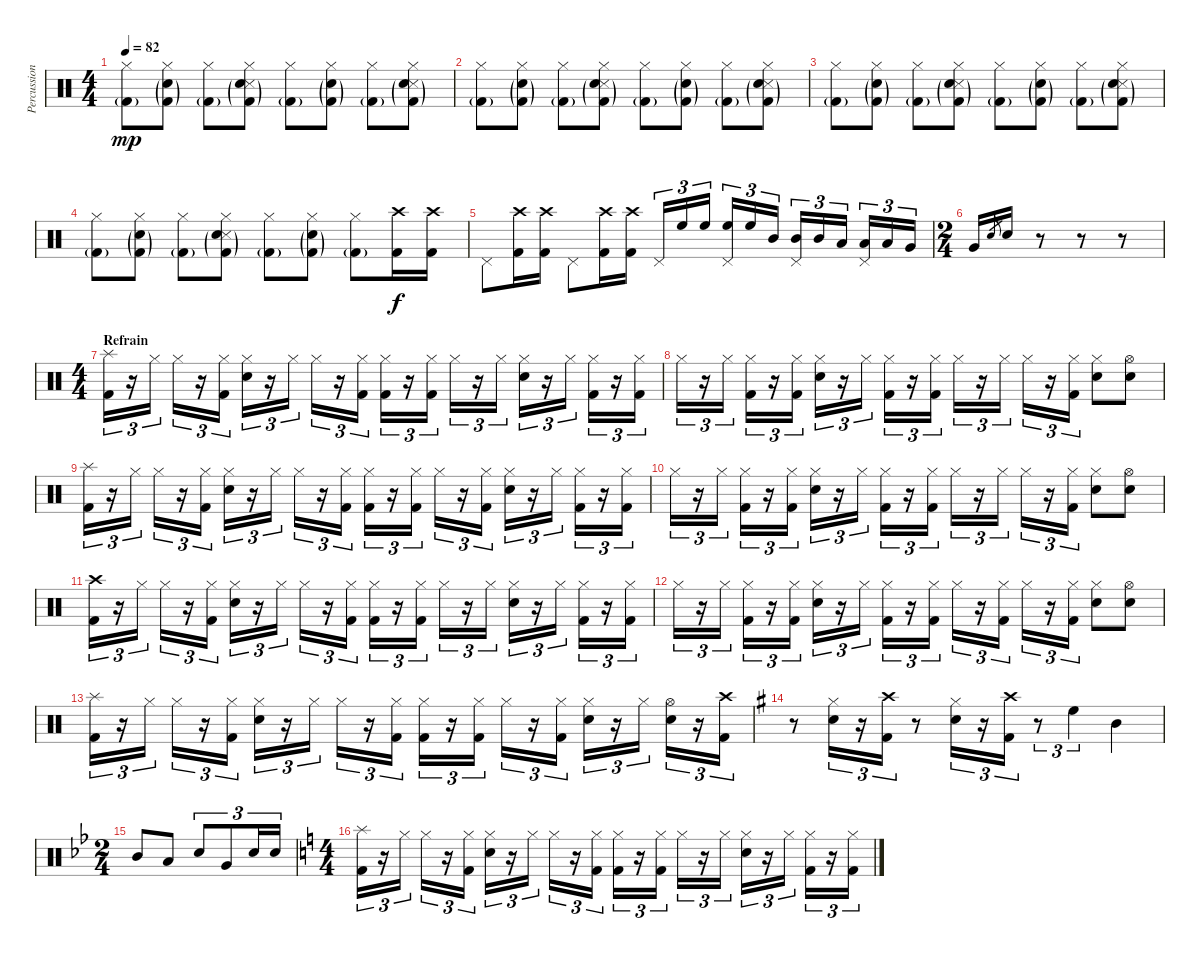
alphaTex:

\track ("Percussioni" "Percussion") {instrument percussion}
\staff {score}
\articulation defaults
\ts (4 4)
\tempo 82
\clef neutral
\ks c
("Hi-Hat (closed)" "Kick (hit) 2"{g}).8{dy mp} ("Hi-Hat (closed)" "Snare (hit) 2"{g} "Kick (hit) 2"{g}).8 ("Hi-Hat (closed)" "Kick (hit) 2"{g}).8 ("Snare (side stick) 3" "Hi-Hat (closed)" "Snare (hit) 2"{g} "Kick (hit) 2"{g}).8 ("Hi-Hat (closed)" "Kick (hit) 2"{g}).8 ("Hi-Hat (closed)" "Snare (hit) 2"{g} "Kick (hit) 2"{g}).8 ("Hi-Hat (closed)" "Kick (hit) 2"{g}).8 ("Snare (side stick) 3" "Hi-Hat (closed)" "Snare (hit) 2"{g} "Kick (hit) 2"{g}).8 |
("Hi-Hat (closed)" "Kick (hit) 2"{g}).8 ("Hi-Hat (closed)" "Snare (hit) 2"{g} "Kick (hit) 2"{g}).8 ("Hi-Hat (closed)" "Kick (hit) 2"{g}).8 ("Snare (side stick) 3" "Hi-Hat (closed)" "Snare (hit) 2"{g} "Kick (hit) 2"{g}).8 ("Hi-Hat (closed)" "Kick (hit) 2"{g}).8 ("Hi-Hat (closed)" "Snare (hit) 2"{g} "Kick (hit) 2"{g}).8 ("Hi-Hat (closed)" "Kick (hit) 2"{g}).8 ("Snare (side stick) 3" "Hi-Hat (closed)" "Snare (hit) 2"{g} "Kick (hit) 2"{g}).8 |
("Hi-Hat (closed)" "Kick (hit) 2"{g}).8 ("Hi-Hat (closed)" "Snare (hit) 2"{g} "Kick (hit) 2"{g}).8 ("Hi-Hat (closed)" "Kick (hit) 2"{g}).8 ("Snare (side stick) 3" "Hi-Hat (closed)" "Snare (hit) 2"{g} "Kick (hit) 2"{g}).8 ("Hi-Hat (closed)" "Kick (hit) 2"{g}).8 ("Hi-Hat (closed)" "Snare (hit) 2"{g} "Kick (hit) 2"{g}).8 ("Hi-Hat (closed)" "Kick (hit) 2"{g}).8 ("Snare (side stick) 3" "Hi-Hat (closed)" "Snare (hit) 2"{g} "Kick (hit) 2"{g}).8 |
("Hi-Hat (closed)" "Kick (hit) 2"{g}).8 ("Hi-Hat (closed)" "Snare (hit) 2"{g} "Kick (hit) 2"{g}).8 ("Hi-Hat (closed)" "Kick (hit) 2"{g}).8 ("Snare (side stick) 3" "Hi-Hat (closed)" "Snare (hit) 2"{g} "Kick (hit) 2"{g}).8 ("Hi-Hat (closed)" "Kick (hit) 2"{g}).8 ("Hi-Hat (closed)" "Snare (hit) 2"{g} "Kick (hit) 2"{g}).8 ("Hi-Hat (closed)" "Kick (hit) 2"{g}).8 ("Crash high (hit)" "Kick (hit) 2").16{dy f} ("Crash high (hit)" "Kick (hit) 2").16 |
"Pedal Hi-Hat (hit)".8 ("Crash high (hit)" "Kick (hit) 2").16 ("Crash high (hit)" "Kick (hit) 2").16 "Pedal Hi-Hat (hit)".8 ("Crash high (hit)" "Kick (hit) 2").16 ("Crash high (hit)" "Kick (hit) 2").16 "Pedal Hi-Hat (hit)".16{tu (3 2)} "High Floor Tom (hit)".16{tu (3 2)} "High Floor Tom (hit)".16{tu (3 2)} ("Pedal Hi-Hat (hit)" "High Floor Tom (hit)").16{tu (3 2)} "High Floor Tom (hit)".16{tu (3 2)} "Mid Tom (hit)".16{tu (3 2)} ("Pedal Hi-Hat (hit)" "Mid Tom (hit)").16{tu (3 2)} "Mid Tom (hit)".16{tu (3 2)} "Low Tom (hit)".16{tu (3 2)} ("Pedal Hi-Hat (hit)" "Low Tom (hit)").16{tu (3 2)} "Low Tom (hit)".16{tu (3 2)} "Very Low Tom (hit)".16{tu (3 2)} |
\ts (2 4)
"Very Low Tom (hit)".16 "Snare (hit) 2".8{gr} "Snare (hit) 2".16 r.8 r.8 r.8 |
\ts (4 4)
\section ("" "Refrain")
("Splash (hit)" "Kick (hit) 2").16{tu (3 2)} r.16{tu (3 2)} "Hi-Hat (closed)".16{tu (3 2)} "Hi-Hat (closed)".16{tu (3 2)} r.16{tu (3 2)} ("Hi-Hat (closed)" "Kick (hit) 2").16{tu (3 2)} ("Hi-Hat (closed)" "Snare (hit) 2").16{tu (3 2)} r.16{tu (3 2)} "Hi-Hat (closed)".16{tu (3 2)} "Hi-Hat (closed)".16{tu (3 2)} r.16{tu (3 2)} ("Hi-Hat (closed)" "Kick (hit) 2").16{tu (3 2)} ("Hi-Hat (closed)" "Kick (hit) 2").16{tu (3 2)} r.16{tu (3 2)} ("Hi-Hat (closed)" "Kick (hit) 2").16{tu (3 2)} "Hi-Hat (closed)".16{tu (3 2)} r.16{tu (3 2)} "Hi-Hat (closed)".16{tu (3 2)} ("Hi-Hat (closed)" "Snare (hit) 2").16{tu (3 2)} r.16{tu (3 2)} "Hi-Hat (closed)".16{tu (3 2)} ("Hi-Hat (closed)" "Kick (hit) 2").16{tu (3 2)} r.16{tu (3 2)} ("Hi-Hat (closed)" "Kick (hit) 2").16{tu (3 2)} |
"Hi-Hat (closed)".16{tu (3 2)} r.16{tu (3 2)} "Hi-Hat (closed)".16{tu (3 2)} ("Hi-Hat (closed)" "Kick (hit) 2").16{tu (3 2)} r.16{tu (3 2)} ("Hi-Hat (closed)" "Kick (hit) 2").16{tu (3 2)} ("Hi-Hat (closed)" "Snare (hit) 2").16{tu (3 2)} r.16{tu (3 2)} "Hi-Hat (closed)".16{tu (3 2)} ("Hi-Hat (closed)" "Kick (hit) 2").16{tu (3 2)} r.16{tu (3 2)} ("Hi-Hat (closed)" "Kick (hit) 2").16{tu (3 2)} "Hi-Hat (closed)".16{tu (3 2)} r.16{tu (3 2)} "Hi-Hat (closed)".16{tu (3 2)} "Hi-Hat (closed)".16{tu (3 2)} r.16{tu (3 2)} ("Hi-Hat (closed)" "Kick (hit) 2").16{tu (3 2)} ("Hi-Hat (closed)" "Snare (hit) 2").8 ("Hi-Hat (open)" "Snare (hit) 2").8 |
("Splash (hit)" "Kick (hit) 2").16{tu (3 2)} r.16{tu (3 2)} "Hi-Hat (closed)".16{tu (3 2)} "Hi-Hat (closed)".16{tu (3 2)} r.16{tu (3 2)} ("Hi-Hat (closed)" "Kick (hit) 2").16{tu (3 2)} ("Hi-Hat (closed)" "Snare (hit) 2").16{tu (3 2)} r.16{tu (3 2)} "Hi-Hat (closed)".16{tu (3 2)} "Hi-Hat (closed)".16{tu (3 2)} r.16{tu (3 2)} ("Hi-Hat (closed)" "Kick (hit) 2").16{tu (3 2)} ("Hi-Hat (closed)" "Kick (hit) 2").16{tu (3 2)} r.16{tu (3 2)} ("Hi-Hat (closed)" "Kick (hit) 2").16{tu (3 2)} "Hi-Hat (closed)".16{tu (3 2)} r.16{tu (3 2)} ("Hi-Hat (closed)" "Kick (hit) 2").16{tu (3 2)} ("Hi-Hat (closed)" "Snare (hit) 2").16{tu (3 2)} r.16{tu (3 2)} "Hi-Hat (closed)".16{tu (3 2)} ("Hi-Hat (closed)" "Kick (hit) 2").16{tu (3 2)} r.16{tu (3 2)} ("Hi-Hat (closed)" "Kick (hit) 2").16{tu (3 2)} |
"Hi-Hat (closed)".16{tu (3 2)} r.16{tu (3 2)} "Hi-Hat (closed)".16{tu (3 2)} ("Hi-Hat (closed)" "Kick (hit) 2").16{tu (3 2)} r.16{tu (3 2)} ("Hi-Hat (closed)" "Kick (hit) 2").16{tu (3 2)} ("Hi-Hat (closed)" "Snare (hit) 2").16{tu (3 2)} r.16{tu (3 2)} "Hi-Hat (closed)".16{tu (3 2)} ("Hi-Hat (closed)" "Kick (hit) 2").16{tu (3 2)} r.16{tu (3 2)} ("Hi-Hat (closed)" "Kick (hit) 2").16{tu (3 2)} "Hi-Hat (closed)".16{tu (3 2)} r.16{tu (3 2)} "Hi-Hat (closed)".16{tu (3 2)} "Hi-Hat (closed)".16{tu (3 2)} r.16{tu (3 2)} ("Hi-Hat (closed)" "Kick (hit) 2").16{tu (3 2)} ("Hi-Hat (closed)" "Snare (hit) 2").8 ("Hi-Hat (open)" "Snare (hit) 2").8 |
("Crash high (hit)" "Kick (hit) 2").16{tu (3 2)} r.16{tu (3 2)} "Hi-Hat (closed)".16{tu (3 2)} "Hi-Hat (closed)".16{tu (3 2)} r.16{tu (3 2)} ("Hi-Hat (closed)" "Kick (hit) 2").16{tu (3 2)} ("Hi-Hat (closed)" "Snare (hit) 2").16{tu (3 2)} r.16{tu (3 2)} "Hi-Hat (closed)".16{tu (3 2)} "Hi-Hat (closed)".16{tu (3 2)} r.16{tu (3 2)} ("Hi-Hat (closed)" "Kick (hit) 2").16{tu (3 2)} ("Hi-Hat (closed)" "Kick (hit) 2").16{tu (3 2)} r.16{tu (3 2)} ("Hi-Hat (closed)" "Kick (hit) 2").16{tu (3 2)} "Hi-Hat (closed)".16{tu (3 2)} r.16{tu (3 2)} "Hi-Hat (closed)".16{tu (3 2)} ("Hi-Hat (closed)" "Snare (hit) 2").16{tu (3 2)} r.16{tu (3 2)} "Hi-Hat (closed)".16{tu (3 2)} ("Hi-Hat (closed)" "Kick (hit) 2").16{tu (3 2)} r.16{tu (3 2)} ("Hi-Hat (closed)" "Kick (hit) 2").16{tu (3 2)} |
"Hi-Hat (closed)".16{tu (3 2)} r.16{tu (3 2)} "Hi-Hat (closed)".16{tu (3 2)} ("Hi-Hat (closed)" "Kick (hit) 2").16{tu (3 2)} r.16{tu (3 2)} ("Hi-Hat (closed)" "Kick (hit) 2").16{tu (3 2)} ("Hi-Hat (closed)" "Snare (hit) 2").16{tu (3 2)} r.16{tu (3 2)} "Hi-Hat (closed)".16{tu (3 2)} ("Hi-Hat (closed)" "Kick (hit) 2").16{tu (3 2)} r.16{tu (3 2)} ("Hi-Hat (closed)" "Kick (hit) 2").16{tu (3 2)} "Hi-Hat (closed)".16{tu (3 2)} r.16{tu (3 2)} ("Hi-Hat (closed)" "Kick (hit) 2").16{tu (3 2)} "Hi-Hat (closed)".16{tu (3 2)} r.16{tu (3 2)} ("Hi-Hat (closed)" "Kick (hit) 2").16{tu (3 2)} ("Hi-Hat (closed)" "Snare (hit) 2").8 ("Hi-Hat (open)" "Snare (hit) 2").8 |
("Splash (hit)" "Kick (hit) 2").16{tu (3 2)} r.16{tu (3 2)} "Hi-Hat (closed)".16{tu (3 2)} "Hi-Hat (closed)".16{tu (3 2)} r.16{tu (3 2)} ("Hi-Hat (closed)" "Kick (hit) 2").16{tu (3 2)} ("Hi-Hat (closed)" "Snare (hit) 2").16{tu (3 2)} r.16{tu (3 2)} "Hi-Hat (closed)".16{tu (3 2)} "Hi-Hat (closed)".16{tu (3 2)} r.16{tu (3 2)} ("Hi-Hat (closed)" "Kick (hit) 2").16{tu (3 2)} ("Hi-Hat (closed)" "Kick (hit) 2").16{tu (3 2)} r.16{tu (3 2)} ("Hi-Hat (closed)" "Kick (hit) 2").16{tu (3 2)} "Hi-Hat (closed)".16{tu (3 2)} r.16{tu (3 2)} ("Hi-Hat (closed)" "Kick (hit) 2").16{tu (3 2)} ("Hi-Hat (closed)" "Snare (hit) 2").16{tu (3 2)} r.16{tu (3 2)} "Hi-Hat (closed)".16{tu (3 2)} ("Hi-Hat (open)" "Snare (hit) 2").16{tu (3 2)} r.16{tu (3 2)} ("Crash high (hit)" "Kick (hit) 2").16{tu (3 2)} |
\ks g
r.8 ("Hi-Hat (closed)" "Snare (hit) 2").16{tu (3 2)} r.16{tu (3 2)} ("Crash high (hit)" "Kick (hit) 2").16{tu (3 2)} r.8 ("Hi-Hat (closed)" "Snare (hit) 2").16{tu (3 2)} r.16{tu (3 2)} ("Crash high (hit)" "Kick (hit) 2").16{tu (3 2)} r.8{tu (3 2)} "High Floor Tom (hit)".4{tu (3 2)} "Mid Tom (hit)".4 |
\ts (2 4)
\ks bb "Mid Tom (hit)".8 "Low Floor Tom (hit)".8 "Snare (hit) 2".8{tu (3 2)} "Very Low Tom (hit)".8{tu (3 2)} "Snare (hit) 2".16{tu (3 2)} "Snare (hit) 2".16{tu (3 2)}
|
\ts (4 4)
\ks c
("Splash (hit)" "Kick (hit) 2").16{tu (3 2)} r.16{tu (3 2)} "Hi-Hat (closed)".16{tu (3 2)} "Hi-Hat (closed)".16{tu (3 2)} r.16{tu (3 2)} ("Hi-Hat (closed)" "Kick (hit) 2").16{tu (3 2)} ("Hi-Hat (closed)" "Snare (hit) 2").16{tu (3 2)} r.16{tu (3 2)} "Hi-Hat (closed)".16{tu (3 2)} "Hi-Hat (closed)".16{tu (3 2)} r.16{tu (3 2)} ("Hi-Hat (closed)" "Kick (hit) 2").16{tu (3 2)} ("Hi-Hat (closed)" "Kick (hit) 2").16{tu (3 2)} r.16{tu (3 2)} ("Hi-Hat (closed)" "Kick (hit) 2").16{tu (3 2)} "Hi-Hat (closed)".16{tu (3 2)} r.16{tu (3 2)} "Hi-Hat (closed)".16{tu (3 2)} ("Hi-Hat (closed)" "Snare (hit) 2").16{tu (3 2)} r.16{tu (3 2)} "Hi-Hat (closed)".16{tu (3 2)} ("Hi-Hat (closed)" "Kick (hit) 2").16{tu (3 2)} r.16{tu (3 2)} ("Hi-Hat (closed)" "Kick (hit) 2").16{tu (3 2)}
